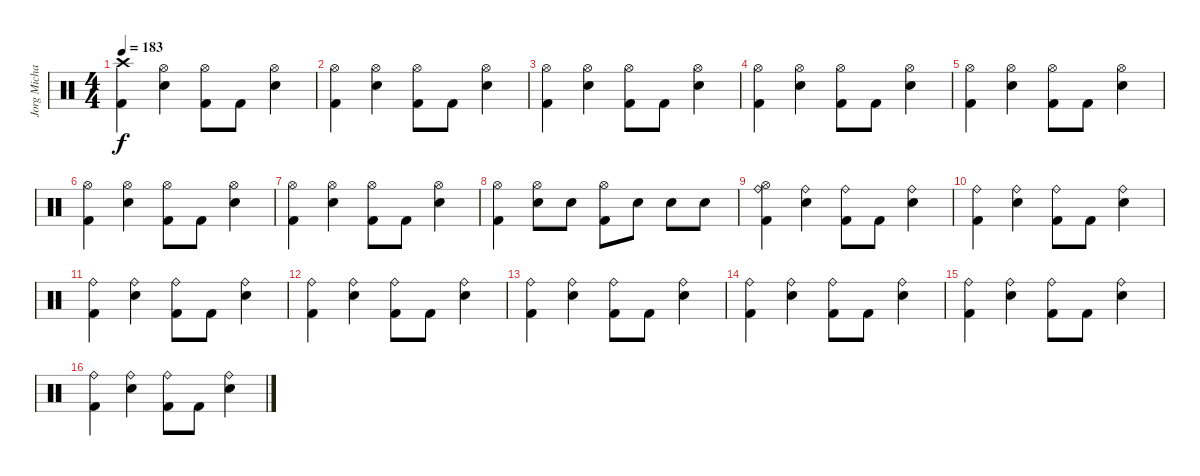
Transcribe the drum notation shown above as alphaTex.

\track ("Jorg Michael" "Jorg Micha") {instrument percussion}
\staff {score}
\articulation defaults
\ts (4 4)
\tempo 183
\clef neutral
\ks c
("Kick (hit) 2" "Crash high (hit)").4{dy f} ("Snare (hit) 2" "Hi-Hat (open)").4 ("Kick (hit) 2" "Hi-Hat (open)").8 "Kick (hit) 2".8 ("Snare (hit) 2" "Hi-Hat (open)").4 |
("Kick (hit) 2" "Hi-Hat (open)").4 ("Snare (hit) 2" "Hi-Hat (open)").4 ("Kick (hit) 2" "Hi-Hat (open)").8 "Kick (hit) 2".8 ("Snare (hit) 2" "Hi-Hat (open)").4 |
("Kick (hit) 2" "Hi-Hat (open)").4 ("Snare (hit) 2" "Hi-Hat (open)").4 ("Kick (hit) 2" "Hi-Hat (open)").8 "Kick (hit) 2".8 ("Snare (hit) 2" "Hi-Hat (open)").4 |
("Kick (hit) 2" "Hi-Hat (open)").4 ("Snare (hit) 2" "Hi-Hat (open)").4 ("Kick (hit) 2" "Hi-Hat (open)").8 "Kick (hit) 2".8 ("Snare (hit) 2" "Hi-Hat (open)").4 |
("Kick (hit) 2" "Hi-Hat (open)").4 ("Snare (hit) 2" "Hi-Hat (open)").4 ("Kick (hit) 2" "Hi-Hat (open)").8 "Kick (hit) 2".8 ("Snare (hit) 2" "Hi-Hat (open)").4 |
("Kick (hit) 2" "Hi-Hat (open)").4 ("Snare (hit) 2" "Hi-Hat (open)").4 ("Kick (hit) 2" "Hi-Hat (open)").8 "Kick (hit) 2".8 ("Snare (hit) 2" "Hi-Hat (open)").4 |
("Kick (hit) 2" "Hi-Hat (open)").4 ("Snare (hit) 2" "Hi-Hat (open)").4 ("Kick (hit) 2" "Hi-Hat (open)").8 "Kick (hit) 2".8 ("Snare (hit) 2" "Hi-Hat (open)").4 |
("Hi-Hat (open)" "Kick (hit) 2").4 ("Snare (hit) 2" "Hi-Hat (open)").8 "Snare (hit) 2".8 ("Kick (hit) 2" "Hi-Hat (open)").8 "Snare (hit) 2".8 "Snare (hit) 2".8 "Snare (hit) 2".8 |
("Kick (hit) 2" "Hi-Hat (open)" "Ride (bell)").4 ("Snare (hit) 2" "Ride (bell)").4 ("Kick (hit) 2" "Ride (bell)").8 "Kick (hit) 2".8 ("Snare (hit) 2" "Ride (bell)").4 |
("Kick (hit) 2" "Ride (bell)").4 ("Snare (hit) 2" "Ride (bell)").4 ("Kick (hit) 2" "Ride (bell)").8 "Kick (hit) 2".8 ("Snare (hit) 2" "Ride (bell)").4 |
("Kick (hit) 2" "Ride (bell)").4 ("Snare (hit) 2" "Ride (bell)").4 ("Kick (hit) 2" "Ride (bell)").8 "Kick (hit) 2".8 ("Snare (hit) 2" "Ride (bell)").4 |
("Kick (hit) 2" "Ride (bell)").4 ("Snare (hit) 2" "Ride (bell)").4 ("Kick (hit) 2" "Ride (bell)").8 "Kick (hit) 2".8 ("Snare (hit) 2" "Ride (bell)").4 |
("Kick (hit) 2" "Ride (bell)").4 ("Snare (hit) 2" "Ride (bell)").4 ("Kick (hit) 2" "Ride (bell)").8 "Kick (hit) 2".8 ("Snare (hit) 2" "Ride (bell)").4 |
("Kick (hit) 2" "Ride (bell)").4 ("Snare (hit) 2" "Ride (bell)").4 ("Kick (hit) 2" "Ride (bell)").8 "Kick (hit) 2".8 ("Snare (hit) 2" "Ride (bell)").4 |
("Kick (hit) 2" "Ride (bell)").4 ("Snare (hit) 2" "Ride (bell)").4 ("Kick (hit) 2" "Ride (bell)").8 "Kick (hit) 2".8 ("Snare (hit) 2" "Ride (bell)").4 |
("Kick (hit) 2" "Ride (bell)").4 ("Snare (hit) 2" "Ride (bell)").4 ("Kick (hit) 2" "Ride (bell)").8 "Kick (hit) 2".8 ("Snare (hit) 2" "Ride (bell)").4
